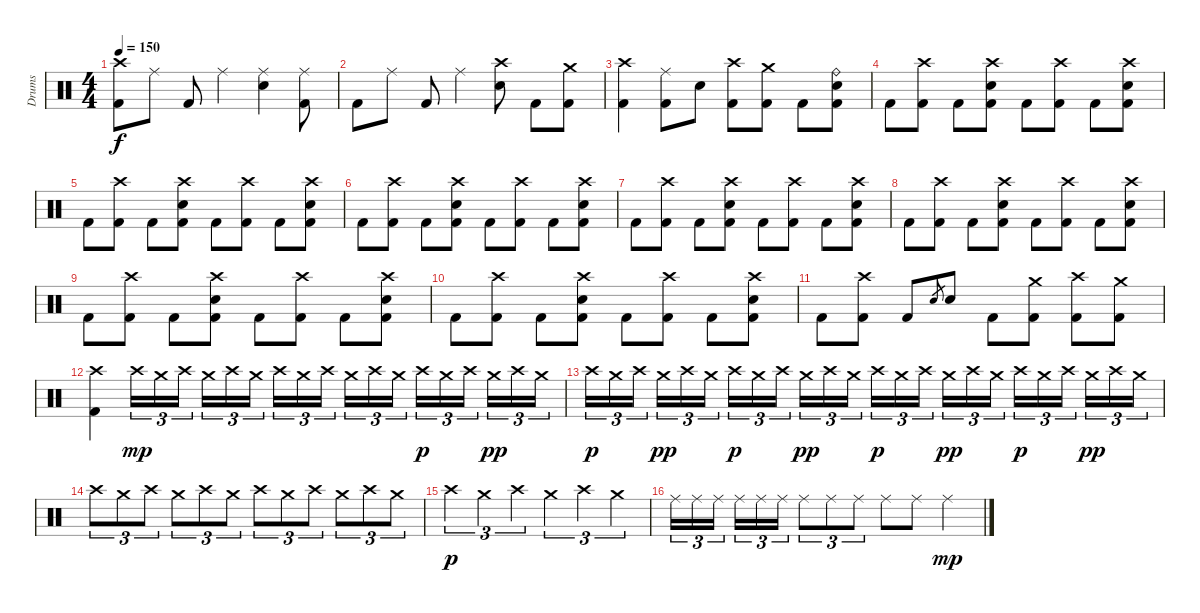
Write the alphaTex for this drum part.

\track ("Drums" "Drums") {instrument percussion}
\staff {score}
\articulation defaults
\ts (4 4)
\tempo 150
\clef neutral
\ks c
("Crash high (hit)" "Kick (hit) 2").8{dy f} "Ride (middle)".8 "Kick (hit) 2".8 "Ride (middle)".4 ("Ride (middle)" "Electric Snare (hit)").4 ("Ride (middle)" "Kick (hit) 2").8 |
"Kick (hit) 2".8 "Ride (middle)".8 "Kick (hit) 2".8 "Ride (middle)".4 ("Crash high (hit)" "Electric Snare (hit)").8 "Kick (hit) 2".8 ("Crash medium (hit)" "Kick (hit) 2").8 |
("Crash high (hit)" "Kick (hit) 2").4 ("Ride (middle)" "Kick (hit) 2").8 "Electric Snare (hit)".8 ("Crash high (hit)" "Kick (hit) 2").8 ("Crash medium (hit)" "Kick (hit) 2").8 "Kick (hit) 2".8 ("Ride (bell)" "Electric Snare (hit)" "Kick (hit) 2").8 |
"Kick (hit) 2".8 ("Crash high (hit)" "Kick (hit) 2").8 "Kick (hit) 2".8 ("Crash high (hit)" "Electric Snare (hit)" "Kick (hit) 2").8 "Kick (hit) 2".8 ("Crash high (hit)" "Kick (hit) 2").8 "Kick (hit) 2".8 ("Crash high (hit)" "Electric Snare (hit)" "Kick (hit) 2").8 |
"Kick (hit) 2".8 ("Crash high (hit)" "Kick (hit) 2").8 "Kick (hit) 2".8 ("Crash high (hit)" "Electric Snare (hit)" "Kick (hit) 2").8 "Kick (hit) 2".8 ("Crash high (hit)" "Kick (hit) 2").8 "Kick (hit) 2".8 ("Crash high (hit)" "Electric Snare (hit)" "Kick (hit) 2").8 |
"Kick (hit) 2".8 ("Crash high (hit)" "Kick (hit) 2").8 "Kick (hit) 2".8 ("Crash high (hit)" "Electric Snare (hit)" "Kick (hit) 2").8 "Kick (hit) 2".8 ("Crash high (hit)" "Kick (hit) 2").8 "Kick (hit) 2".8 ("Crash high (hit)" "Electric Snare (hit)" "Kick (hit) 2").8 |
"Kick (hit) 2".8 ("Crash high (hit)" "Kick (hit) 2").8 "Kick (hit) 2".8 ("Crash high (hit)" "Electric Snare (hit)" "Kick (hit) 2").8 "Kick (hit) 2".8 ("Crash high (hit)" "Kick (hit) 2").8 "Kick (hit) 2".8 ("Crash high (hit)" "Electric Snare (hit)" "Kick (hit) 2").8 |
"Kick (hit) 2".8 ("Crash high (hit)" "Kick (hit) 2").8 "Kick (hit) 2".8 ("Crash high (hit)" "Electric Snare (hit)" "Kick (hit) 2").8 "Kick (hit) 2".8 ("Crash high (hit)" "Kick (hit) 2").8 "Kick (hit) 2".8 ("Crash high (hit)" "Electric Snare (hit)" "Kick (hit) 2").8 |
"Kick (hit) 2".8 ("Crash high (hit)" "Kick (hit) 2").8 "Kick (hit) 2".8 ("Crash high (hit)" "Electric Snare (hit)" "Kick (hit) 2").8 "Kick (hit) 2".8 ("Crash high (hit)" "Kick (hit) 2").8 "Kick (hit) 2".8 ("Crash high (hit)" "Electric Snare (hit)" "Kick (hit) 2").8 |
"Kick (hit) 2".8 ("Crash high (hit)" "Kick (hit) 2").8 "Kick (hit) 2".8 ("Crash high (hit)" "Electric Snare (hit)" "Kick (hit) 2").8 "Kick (hit) 2".8 ("Crash high (hit)" "Kick (hit) 2").8 "Kick (hit) 2".8 ("Crash high (hit)" "Electric Snare (hit)" "Kick (hit) 2").8 |
"Kick (hit) 2".8 ("Crash high (hit)" "Kick (hit) 2").8 "Kick (hit) 2".8 "Electric Snare (hit)".8{gr} "Electric Snare (hit)".8 "Kick (hit) 2".8 ("Crash medium (hit)" "Kick (hit) 2").8 ("Crash high (hit)" "Kick (hit) 2").8 ("Crash medium (hit)" "Kick (hit) 2").8 |
("Crash high (hit)" "Kick (hit) 2").4 "Crash high (hit)".16{tu (3 2) dy mp} "Crash medium (hit)".16{tu (3 2)} "Crash high (hit)".16{tu (3 2) beam splitsecondary} "Crash medium (hit)".16{tu (3 2)} "Crash high (hit)".16{tu (3 2)} "Crash medium (hit)".16{tu (3 2)} "Crash high (hit)".16{tu (3 2)} "Crash medium (hit)".16{tu (3 2)} "Crash high (hit)".16{tu (3 2) beam splitsecondary} "Crash medium (hit)".16{tu (3 2)} "Crash high (hit)".16{tu (3 2)} "Crash medium (hit)".16{tu (3 2)} "Crash high (hit)".16{tu (3 2) dy p} "Crash medium (hit)".16{tu (3 2)} "Crash high (hit)".16{tu (3 2) beam splitsecondary} "Crash medium (hit)".16{tu (3 2) dy pp} "Crash high (hit)".16{tu (3 2)} "Crash medium (hit)".16{tu (3 2)} |
"Crash high (hit)".16{tu (3 2) dy p} "Crash medium (hit)".16{tu (3 2)} "Crash high (hit)".16{tu (3 2) beam splitsecondary} "Crash medium (hit)".16{tu (3 2) dy pp} "Crash high (hit)".16{tu (3 2)} "Crash medium (hit)".16{tu (3 2)} "Crash high (hit)".16{tu (3 2) dy p} "Crash medium (hit)".16{tu (3 2)} "Crash high (hit)".16{tu (3 2) beam splitsecondary} "Crash medium (hit)".16{tu (3 2) dy pp} "Crash high (hit)".16{tu (3 2)} "Crash medium (hit)".16{tu (3 2)} "Crash high (hit)".16{tu (3 2) dy p} "Crash medium (hit)".16{tu (3 2)} "Crash high (hit)".16{tu (3 2) beam splitsecondary} "Crash medium (hit)".16{tu (3 2) dy pp} "Crash high (hit)".16{tu (3 2)} "Crash medium (hit)".16{tu (3 2)} "Crash high (hit)".16{tu (3 2) dy p} "Crash medium (hit)".16{tu (3 2)} "Crash high (hit)".16{tu (3 2) beam splitsecondary} "Crash medium (hit)".16{tu (3 2) dy pp} "Crash high (hit)".16{tu (3 2)} "Crash medium (hit)".16{tu (3 2)} |
"Crash high (hit)".8{tu (3 2)} "Crash medium (hit)".8{tu (3 2)} "Crash high (hit)".8{tu (3 2)} "Crash medium (hit)".8{tu (3 2)} "Crash high (hit)".8{tu (3 2)} "Crash medium (hit)".8{tu (3 2)} "Crash high (hit)".8{tu (3 2)} "Crash medium (hit)".8{tu (3 2)} "Crash high (hit)".8{tu (3 2)} "Crash medium (hit)".8{tu (3 2)} "Crash high (hit)".8{tu (3 2)} "Crash medium (hit)".8{tu (3 2)} |
"Crash high (hit)".4{tu (3 2) dy p} "Crash medium (hit)".4{tu (3 2)} "Crash high (hit)".4{tu (3 2)} "Crash medium (hit)".4{tu (3 2)} "Crash high (hit)".4{tu (3 2)} "Crash medium (hit)".4{tu (3 2)} |
"Ride (middle)".16{tu (3 2)} "Ride (middle)".16{tu (3 2)} "Ride (middle)".16{tu (3 2) beam splitsecondary} "Ride (middle)".16{tu (3 2)} "Ride (middle)".16{tu (3 2)} "Ride (middle)".16{tu (3 2)} "Ride (middle)".8{tu (3 2)} "Ride (middle)".8{tu (3 2)} "Ride (middle)".8{tu (3 2)} "Ride (middle)".8 "Ride (middle)".8 "Ride (middle)".4{dy mp}
